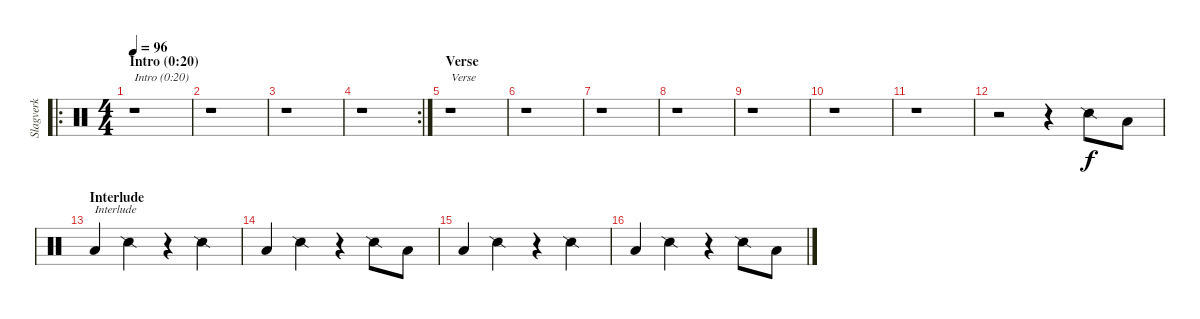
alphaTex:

\track ("Slagverk" "Slagverk") {instrument percussion}
\staff {score}
\articulation defaults
\ro
\ts (4 4)
\section ("" "Intro (0:20)")
\tempo 96
\clef neutral
\ks c
r.1{txt "Intro (0:20)" dy f} |
r.1 |
r.1 |
\rc 2
r.1 |
\section ("" "Verse")
r.1{txt "Verse"} |
r.1 |
r.1 |
r.1 |
r.1 |
r.1 |
r.1 |
r.2 r.4 "Snare (side stick) 2".8 "Low Floor Tom (hit)".8 |
\section ("" "Interlude")
"Low Floor Tom (hit)".4{txt "Interlude"} "Snare (side stick) 2".4 r.4 "Snare (side stick) 2".4 |
"Low Floor Tom (hit)".4 "Snare (side stick) 2".4 r.4 "Snare (side stick) 2".8 "Low Floor Tom (hit)".8 |
"Low Floor Tom (hit)".4 "Snare (side stick) 2".4 r.4 "Snare (side stick) 2".4 |
"Low Floor Tom (hit)".4 "Snare (side stick) 2".4 r.4 "Snare (side stick) 2".8 "Low Floor Tom (hit)".8
